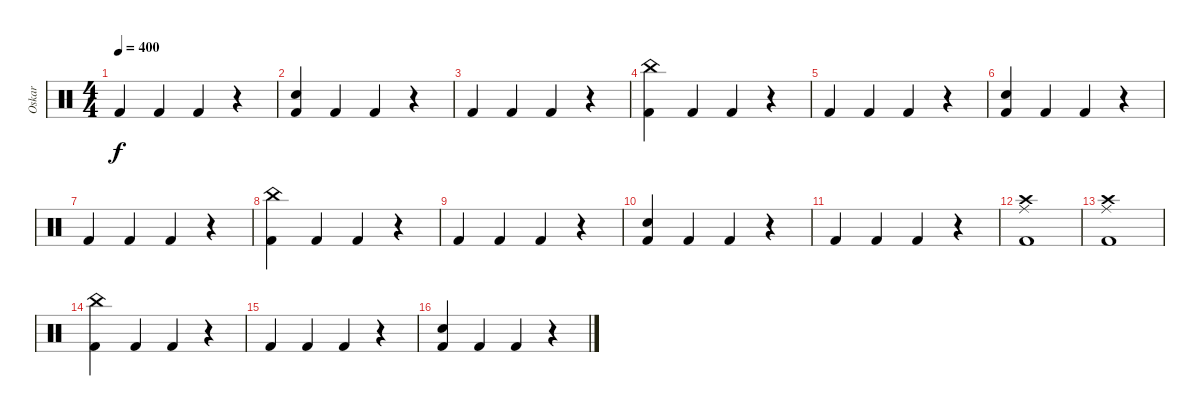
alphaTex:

\track ("Oskar" "Oskar") {instrument percussion}
\staff {score}
\articulation defaults
\ts (4 4)
\tempo 400
\clef neutral
\ks c "Kick (hit) 2".4{dy f} "Kick (hit) 2".4 "Kick (hit) 2".4
r.4 |
("Electric Snare (hit)" "Kick (hit) 2").4 "Kick (hit) 2".4 "Kick (hit) 2".4 r.4 |
"Kick (hit) 2".4 "Kick (hit) 2".4 "Kick (hit) 2".4 r.4 |
("China (hit)" "Kick (hit) 2").4 "Kick (hit) 2".4 "Kick (hit) 2".4 r.4 |
"Kick (hit) 2".4 "Kick (hit) 2".4 "Kick (hit) 2".4 r.4 |
("Electric Snare (hit)" "Kick (hit) 2").4 "Kick (hit) 2".4 "Kick (hit) 2".4 r.4 |
"Kick (hit) 2".4 "Kick (hit) 2".4 "Kick (hit) 2".4 r.4 |
("China (hit)" "Kick (hit) 2").4 "Kick (hit) 2".4 "Kick (hit) 2".4 r.4 |
"Kick (hit) 2".4 "Kick (hit) 2".4 "Kick (hit) 2".4 r.4 |
("Electric Snare (hit)" "Kick (hit) 2").4 "Kick (hit) 2".4 "Kick (hit) 2".4 r.4 |
"Kick (hit) 2".4 "Kick (hit) 2".4 "Kick (hit) 2".4 r.4 |
("Crash high (hit)" "Ride (middle)" "Kick (hit) 2").1 |
("Crash high (hit)" "Ride (middle)" "Kick (hit) 2").1 |
("China (hit)" "Kick (hit) 2").4 "Kick (hit) 2".4 "Kick (hit) 2".4 r.4 |
"Kick (hit) 2".4 "Kick (hit) 2".4 "Kick (hit) 2".4 r.4 |
("Electric Snare (hit)" "Kick (hit) 2").4 "Kick (hit) 2".4 "Kick (hit) 2".4 r.4
